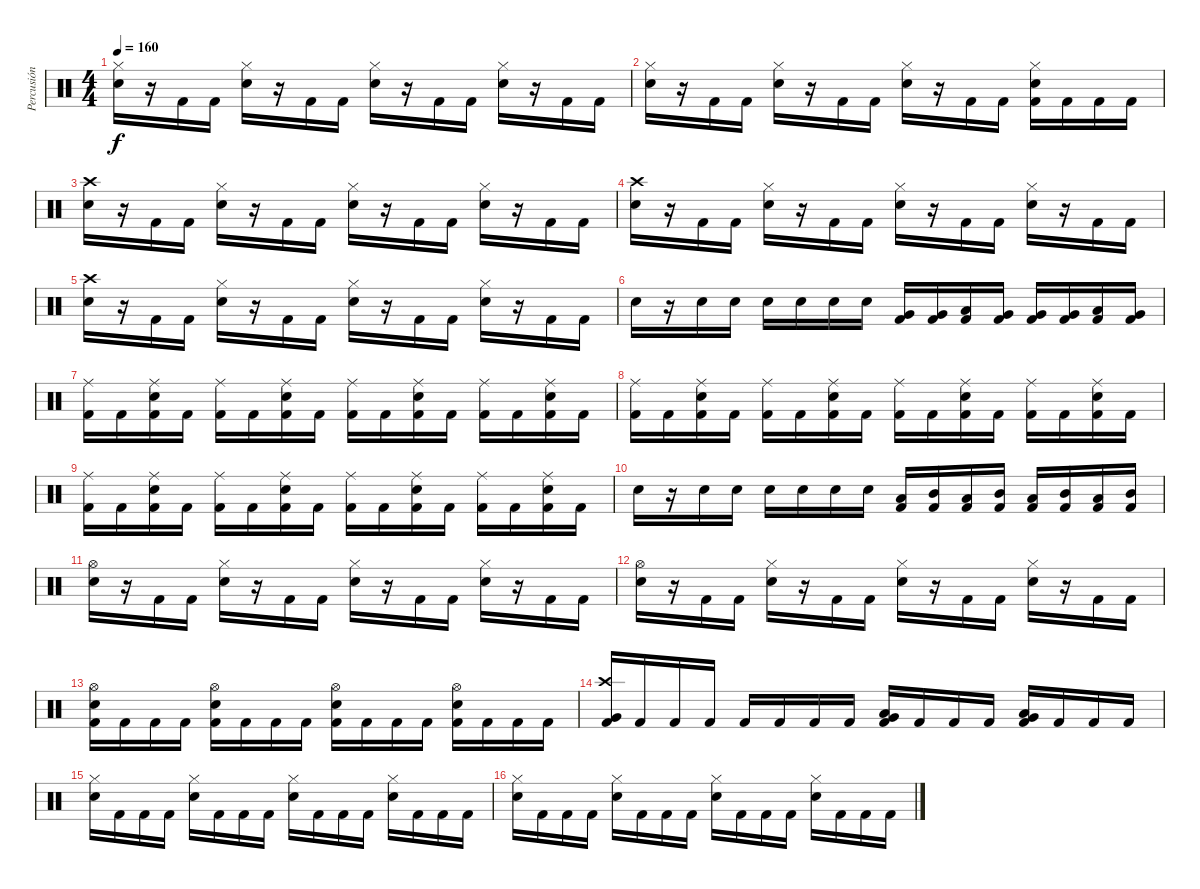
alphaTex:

\track ("Percusión" "Percusión") {instrument percussion}
\staff {score}
\articulation defaults
\ts (4 4)
\tempo 160
\clef neutral
\ks c
("Hi-Hat (closed)" "Snare (hit) 2").16{dy f} r.16 "Kick (hit) 2".16 "Kick (hit) 2".16 ("Hi-Hat (closed)" "Snare (hit) 2").16 r.16 "Kick (hit) 2".16 "Kick (hit) 2".16 ("Hi-Hat (closed)" "Snare (hit) 2").16 r.16 "Kick (hit) 2".16 "Kick (hit) 2".16 ("Hi-Hat (closed)" "Snare (hit) 2").16 r.16 "Kick (hit) 2".16 "Kick (hit) 2".16 |
("Hi-Hat (closed)" "Snare (hit) 2").16 r.16 "Kick (hit) 2".16 "Kick (hit) 2".16 ("Hi-Hat (closed)" "Snare (hit) 2").16 r.16 "Kick (hit) 2".16 "Kick (hit) 2".16 ("Hi-Hat (closed)" "Snare (hit) 2").16 r.16 "Kick (hit) 2".16 "Kick (hit) 2".16 ("Hi-Hat (closed)" "Snare (hit) 2" "Kick (hit) 2").16 "Kick (hit) 2".16 "Kick (hit) 2".16 "Kick (hit) 2".16 |
("Crash high (hit)" "Snare (hit) 2").16 r.16 "Kick (hit) 2".16 "Kick (hit) 2".16 ("Hi-Hat (closed)" "Snare (hit) 2").16 r.16 "Kick (hit) 2".16 "Kick (hit) 2".16 ("Hi-Hat (closed)" "Snare (hit) 2").16 r.16 "Kick (hit) 2".16 "Kick (hit) 2".16 ("Hi-Hat (closed)" "Snare (hit) 2").16 r.16 "Kick (hit) 2".16 "Kick (hit) 2".16 |
("Crash high (hit)" "Snare (hit) 2").16 r.16 "Kick (hit) 2".16 "Kick (hit) 2".16 ("Hi-Hat (closed)" "Snare (hit) 2").16 r.16 "Kick (hit) 2".16 "Kick (hit) 2".16 ("Hi-Hat (closed)" "Snare (hit) 2").16 r.16 "Kick (hit) 2".16 "Kick (hit) 2".16 ("Hi-Hat (closed)" "Snare (hit) 2").16 r.16 "Kick (hit) 2".16 "Kick (hit) 2".16 |
("Crash high (hit)" "Snare (hit) 2").16 r.16 "Kick (hit) 2".16 "Kick (hit) 2".16 ("Hi-Hat (closed)" "Snare (hit) 2").16 r.16 "Kick (hit) 2".16 "Kick (hit) 2".16 ("Hi-Hat (closed)" "Snare (hit) 2").16 r.16 "Kick (hit) 2".16 "Kick (hit) 2".16 ("Hi-Hat (closed)" "Snare (hit) 2").16 r.16 "Kick (hit) 2".16 "Kick (hit) 2".16 |
"Snare (hit) 2".16 r.16 "Snare (hit) 2".16 "Snare (hit) 2".16 "Snare (hit) 2".16 "Snare (hit) 2".16 "Snare (hit) 2".16 "Snare (hit) 2".16 ("Very Low Tom (hit)" "Kick (hit) 2").16 ("Very Low Tom (hit)" "Kick (hit) 2").16 ("Low Tom (hit)" "Kick (hit) 2").16 ("Very Low Tom (hit)" "Kick (hit) 2").16 ("Very Low Tom (hit)" "Kick (hit) 2").16 ("Very Low Tom (hit)" "Kick (hit) 2").16 ("Low Tom (hit)" "Kick (hit) 2").16 ("Very Low Tom (hit)" "Kick (hit) 2").16 |
("Ride (middle)" "Kick (hit) 2").16 "Kick (hit) 2".16 ("Ride (middle)" "Snare (hit) 2" "Kick (hit) 2").16 "Kick (hit) 2".16 ("Ride (middle)" "Kick (hit) 2").16 "Kick (hit) 2".16 ("Ride (middle)" "Snare (hit) 2" "Kick (hit) 2").16 "Kick (hit) 2".16 ("Ride (middle)" "Kick (hit) 2").16 "Kick (hit) 2".16 ("Ride (middle)" "Snare (hit) 2" "Kick (hit) 2").16 "Kick (hit) 2".16 ("Ride (middle)" "Kick (hit) 2").16 "Kick (hit) 2".16 ("Ride (middle)" "Snare (hit) 2" "Kick (hit) 2").16 "Kick (hit) 2".16 |
("Ride (middle)" "Kick (hit) 2").16 "Kick (hit) 2".16 ("Ride (middle)" "Snare (hit) 2" "Kick (hit) 2").16 "Kick (hit) 2".16 ("Ride (middle)" "Kick (hit) 2").16 "Kick (hit) 2".16 ("Ride (middle)" "Snare (hit) 2" "Kick (hit) 2").16 "Kick (hit) 2".16 ("Ride (middle)" "Kick (hit) 2").16 "Kick (hit) 2".16 ("Ride (middle)" "Snare (hit) 2" "Kick (hit) 2").16 "Kick (hit) 2".16 ("Ride (middle)" "Kick (hit) 2").16 "Kick (hit) 2".16 ("Ride (middle)" "Snare (hit) 2" "Kick (hit) 2").16 "Kick (hit) 2".16 |
("Ride (middle)" "Kick (hit) 2").16 "Kick (hit) 2".16 ("Ride (middle)" "Snare (hit) 2" "Kick (hit) 2").16 "Kick (hit) 2".16 ("Ride (middle)" "Kick (hit) 2").16 "Kick (hit) 2".16 ("Ride (middle)" "Snare (hit) 2" "Kick (hit) 2").16 "Kick (hit) 2".16 ("Ride (middle)" "Kick (hit) 2").16 "Kick (hit) 2".16 ("Ride (middle)" "Snare (hit) 2" "Kick (hit) 2").16 "Kick (hit) 2".16 ("Ride (middle)" "Kick (hit) 2").16 "Kick (hit) 2".16 ("Ride (middle)" "Snare (hit) 2" "Kick (hit) 2").16 "Kick (hit) 2".16 |
"Snare (hit) 2".16 r.16 "Snare (hit) 2".16 "Snare (hit) 2".16 "Snare (hit) 2".16 "Snare (hit) 2".16 "Snare (hit) 2".16 "Snare (hit) 2".16 ("Low Tom (hit)" "Kick (hit) 2").16 ("Mid Tom (hit)" "Kick (hit) 2").16 ("Low Tom (hit)" "Kick (hit) 2").16 ("Mid Tom (hit)" "Kick (hit) 2").16 ("Low Tom (hit)" "Kick (hit) 2").16 ("Mid Tom (hit)" "Kick (hit) 2").16 ("Low Tom (hit)" "Kick (hit) 2").16 ("Mid Tom (hit)" "Kick (hit) 2").16 |
("Hi-Hat (open)" "Snare (hit) 2").16 r.16 "Kick (hit) 2".16 "Kick (hit) 2".16 ("Hi-Hat (closed)" "Snare (hit) 2").16 r.16 "Kick (hit) 2".16 "Kick (hit) 2".16 ("Hi-Hat (closed)" "Snare (hit) 2").16 r.16 "Kick (hit) 2".16 "Kick (hit) 2".16 ("Hi-Hat (closed)" "Snare (hit) 2").16 r.16 "Kick (hit) 2".16 "Kick (hit) 2".16 |
("Hi-Hat (open)" "Snare (hit) 2").16 r.16 "Kick (hit) 2".16 "Kick (hit) 2".16 ("Hi-Hat (closed)" "Snare (hit) 2").16 r.16 "Kick (hit) 2".16 "Kick (hit) 2".16 ("Hi-Hat (closed)" "Snare (hit) 2").16 r.16 "Kick (hit) 2".16 "Kick (hit) 2".16 ("Hi-Hat (closed)" "Snare (hit) 2").16 r.16 "Kick (hit) 2".16 "Kick (hit) 2".16 |
("Hi-Hat (open)" "Snare (hit) 2" "Kick (hit) 2").16 "Kick (hit) 2".16 "Kick (hit) 2".16 "Kick (hit) 2".16 ("Hi-Hat (open)" "Snare (hit) 2" "Kick (hit) 2").16 "Kick (hit) 2".16 "Kick (hit) 2".16 "Kick (hit) 2".16 ("Hi-Hat (open)" "Snare (hit) 2" "Kick (hit) 2").16 "Kick (hit) 2".16 "Kick (hit) 2".16 "Kick (hit) 2".16 ("Hi-Hat (open)" "Snare (hit) 2" "Kick (hit) 2").16 "Kick (hit) 2".16 "Kick (hit) 2".16 "Kick (hit) 2".16 |
("Crash high (hit)" "Very Low Tom (hit)" "Kick (hit) 2").16 "Kick (hit) 2".16 "Kick (hit) 2".16 "Kick (hit) 2".16 "Kick (hit) 2".16 "Kick (hit) 2".16 "Kick (hit) 2".16 "Kick (hit) 2".16 ("Low Tom (hit)" "Very Low Tom (hit)" "Kick (hit) 2").16 "Kick (hit) 2".16 "Kick (hit) 2".16 "Kick (hit) 2".16 ("Low Tom (hit)" "Very Low Tom (hit)" "Kick (hit) 2").16 "Kick (hit) 2".16 "Kick (hit) 2".16 "Kick (hit) 2".16 |
("Hi-Hat (closed)" "Snare (hit) 2").16 "Kick (hit) 2".16 "Kick (hit) 2".16 "Kick (hit) 2".16 ("Hi-Hat (closed)" "Snare (hit) 2").16 "Kick (hit) 2".16 "Kick (hit) 2".16 "Kick (hit) 2".16 ("Hi-Hat (closed)" "Snare (hit) 2").16 "Kick (hit) 2".16 "Kick (hit) 2".16 "Kick (hit) 2".16 ("Hi-Hat (closed)" "Snare (hit) 2").16 "Kick (hit) 2".16 "Kick (hit) 2".16 "Kick (hit) 2".16 |
("Hi-Hat (closed)" "Snare (hit) 2").16 "Kick (hit) 2".16 "Kick (hit) 2".16 "Kick (hit) 2".16 ("Hi-Hat (closed)" "Snare (hit) 2").16 "Kick (hit) 2".16 "Kick (hit) 2".16 "Kick (hit) 2".16 ("Hi-Hat (closed)" "Snare (hit) 2").16 "Kick (hit) 2".16 "Kick (hit) 2".16 "Kick (hit) 2".16 ("Hi-Hat (closed)" "Snare (hit) 2").16 "Kick (hit) 2".16 "Kick (hit) 2".16 "Kick (hit) 2".16
